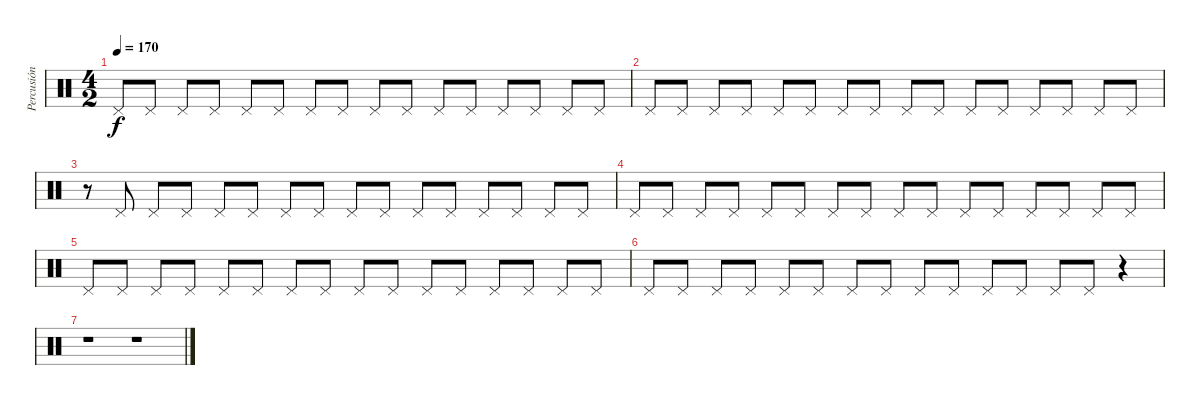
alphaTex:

\track ("Percusión" "Percusión") {instrument percussion}
\staff {score}
\articulation defaults
\ts (4 2)
\tempo 170
\clef neutral
\ks c "Pedal Hi-Hat (hit)".8{dy f} "Pedal Hi-Hat (hit)".8 "Pedal Hi-Hat (hit)".8 "Pedal Hi-Hat (hit)".8 "Pedal Hi-Hat (hit)".8 "Pedal Hi-Hat (hit)".8 "Pedal Hi-Hat (hit)".8 "Pedal Hi-Hat (hit)".8 "Pedal Hi-Hat (hit)".8 "Pedal Hi-Hat (hit)".8 "Pedal Hi-Hat (hit)".8 "Pedal Hi-Hat (hit)".8 "Pedal Hi-Hat (hit)".8 "Pedal Hi-Hat (hit)".8 "Pedal Hi-Hat (hit)".8 "Pedal Hi-Hat (hit)".8
|
"Pedal Hi-Hat (hit)".8 "Pedal Hi-Hat (hit)".8 "Pedal Hi-Hat (hit)".8 "Pedal Hi-Hat (hit)".8 "Pedal Hi-Hat (hit)".8 "Pedal Hi-Hat (hit)".8 "Pedal Hi-Hat (hit)".8 "Pedal Hi-Hat (hit)".8 "Pedal Hi-Hat (hit)".8 "Pedal Hi-Hat (hit)".8 "Pedal Hi-Hat (hit)".8 "Pedal Hi-Hat (hit)".8 "Pedal Hi-Hat (hit)".8 "Pedal Hi-Hat (hit)".8 "Pedal Hi-Hat (hit)".8 "Pedal Hi-Hat (hit)".8 |
r.8 "Pedal Hi-Hat (hit)".8 "Pedal Hi-Hat (hit)".8 "Pedal Hi-Hat (hit)".8 "Pedal Hi-Hat (hit)".8 "Pedal Hi-Hat (hit)".8 "Pedal Hi-Hat (hit)".8 "Pedal Hi-Hat (hit)".8 "Pedal Hi-Hat (hit)".8 "Pedal Hi-Hat (hit)".8 "Pedal Hi-Hat (hit)".8 "Pedal Hi-Hat (hit)".8 "Pedal Hi-Hat (hit)".8 "Pedal Hi-Hat (hit)".8 "Pedal Hi-Hat (hit)".8 "Pedal Hi-Hat (hit)".8 |
"Pedal Hi-Hat (hit)".8 "Pedal Hi-Hat (hit)".8 "Pedal Hi-Hat (hit)".8 "Pedal Hi-Hat (hit)".8 "Pedal Hi-Hat (hit)".8 "Pedal Hi-Hat (hit)".8 "Pedal Hi-Hat (hit)".8 "Pedal Hi-Hat (hit)".8 "Pedal Hi-Hat (hit)".8 "Pedal Hi-Hat (hit)".8 "Pedal Hi-Hat (hit)".8 "Pedal Hi-Hat (hit)".8 "Pedal Hi-Hat (hit)".8 "Pedal Hi-Hat (hit)".8 "Pedal Hi-Hat (hit)".8 "Pedal Hi-Hat (hit)".8 |
"Pedal Hi-Hat (hit)".8 "Pedal Hi-Hat (hit)".8 "Pedal Hi-Hat (hit)".8 "Pedal Hi-Hat (hit)".8 "Pedal Hi-Hat (hit)".8 "Pedal Hi-Hat (hit)".8 "Pedal Hi-Hat (hit)".8 "Pedal Hi-Hat (hit)".8 "Pedal Hi-Hat (hit)".8 "Pedal Hi-Hat (hit)".8 "Pedal Hi-Hat (hit)".8 "Pedal Hi-Hat (hit)".8 "Pedal Hi-Hat (hit)".8 "Pedal Hi-Hat (hit)".8 "Pedal Hi-Hat (hit)".8 "Pedal Hi-Hat (hit)".8 |
"Pedal Hi-Hat (hit)".8 "Pedal Hi-Hat (hit)".8 "Pedal Hi-Hat (hit)".8 "Pedal Hi-Hat (hit)".8 "Pedal Hi-Hat (hit)".8 "Pedal Hi-Hat (hit)".8 "Pedal Hi-Hat (hit)".8 "Pedal Hi-Hat (hit)".8 "Pedal Hi-Hat (hit)".8 "Pedal Hi-Hat (hit)".8 "Pedal Hi-Hat (hit)".8 "Pedal Hi-Hat (hit)".8 "Pedal Hi-Hat (hit)".8 "Pedal Hi-Hat (hit)".8 r.4 |
r.1 r.1
